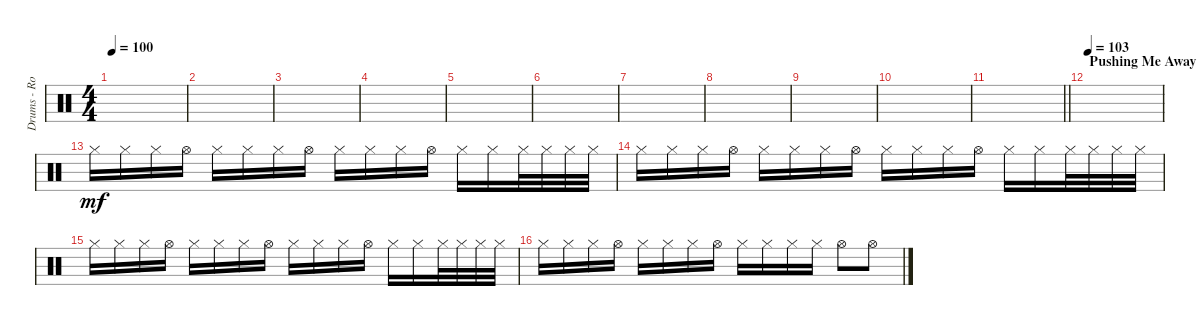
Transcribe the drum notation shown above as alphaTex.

\track ("Drums - Rob Bourdon" "Drums - Ro") {instrument percussion}
\staff {score}
\articulation defaults
\ts (4 4)
\tempo 100
\clef neutral
\ks c
|
|
|
|
|
|
|
|
|
|
\barLineRight lightlight
|
\section ("" "Pushing Me Away Intro")
\tempo 103
|
"Hi-Hat (closed)".16{dy mf} "Hi-Hat (closed)".16 "Hi-Hat (closed)".16 "Hi-Hat (open)".16 "Hi-Hat (closed)".16 "Hi-Hat (closed)".16 "Hi-Hat (closed)".16 "Hi-Hat (open)".16 "Hi-Hat (closed)".16 "Hi-Hat (closed)".16 "Hi-Hat (closed)".16 "Hi-Hat (open)".16 "Hi-Hat (closed)".16 "Hi-Hat (closed)".16 "Hi-Hat (closed)".32 "Hi-Hat (closed)".32 "Hi-Hat (closed)".32 "Hi-Hat (closed)".32 |
"Hi-Hat (closed)".16 "Hi-Hat (closed)".16 "Hi-Hat (closed)".16 "Hi-Hat (open)".16 "Hi-Hat (closed)".16 "Hi-Hat (closed)".16 "Hi-Hat (closed)".16 "Hi-Hat (open)".16 "Hi-Hat (closed)".16 "Hi-Hat (closed)".16 "Hi-Hat (closed)".16 "Hi-Hat (open)".16 "Hi-Hat (closed)".16 "Hi-Hat (closed)".16 "Hi-Hat (closed)".32 "Hi-Hat (closed)".32 "Hi-Hat (closed)".32 "Hi-Hat (closed)".32 |
"Hi-Hat (closed)".16 "Hi-Hat (closed)".16 "Hi-Hat (closed)".16 "Hi-Hat (open)".16 "Hi-Hat (closed)".16 "Hi-Hat (closed)".16 "Hi-Hat (closed)".16 "Hi-Hat (open)".16 "Hi-Hat (closed)".16 "Hi-Hat (closed)".16 "Hi-Hat (closed)".16 "Hi-Hat (open)".16 "Hi-Hat (closed)".16 "Hi-Hat (closed)".16 "Hi-Hat (closed)".32 "Hi-Hat (closed)".32 "Hi-Hat (closed)".32 "Hi-Hat (closed)".32 |
"Hi-Hat (closed)".16 "Hi-Hat (closed)".16 "Hi-Hat (closed)".16 "Hi-Hat (open)".16 "Hi-Hat (closed)".16 "Hi-Hat (closed)".16 "Hi-Hat (closed)".16 "Hi-Hat (open)".16 "Hi-Hat (closed)".16 "Hi-Hat (closed)".16 "Hi-Hat (closed)".16 "Hi-Hat (closed)".16 "Hi-Hat (open)".8 "Hi-Hat (open)".8
